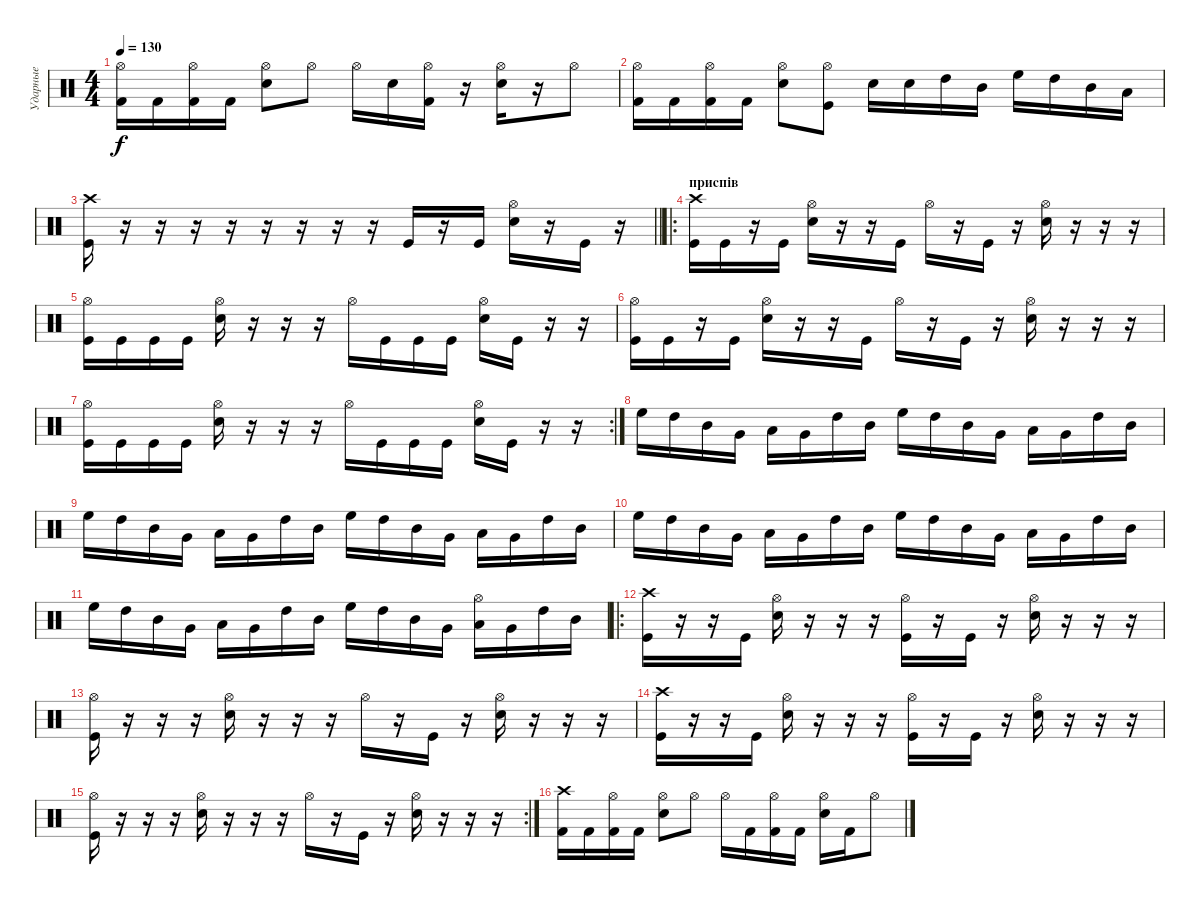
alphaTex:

\track ("Ударные" "Ударные") {instrument percussion}
\staff {score}
\articulation defaults
\ts (4 4)
\tempo 130
\clef neutral
\ks c
("Hi-Hat (open)" "Kick (hit) 2").16{dy f} "Kick (hit) 2".16 ("Hi-Hat (open)" "Kick (hit) 2").16 "Kick (hit) 2".16 ("Hi-Hat (open)" "Electric Snare (hit)").8 "Hi-Hat (open)".8 "Hi-Hat (open)".16 "Snare (hit) 2".16 ("Hi-Hat (open)" "Kick (hit) 2").16 r.16 ("Hi-Hat (open)" "Electric Snare (hit)").16 r.16 "Hi-Hat (open)".8 |
("Hi-Hat (open)" "Kick (hit) 2").16 "Kick (hit) 2".16 ("Hi-Hat (open)" "Kick (hit) 2").16 "Kick (hit) 2".16 ("Hi-Hat (open)" "Electric Snare (hit)").8 ("Hi-Hat (open)" "Kick (hit)").8 "Snare (hit) 2".16 "Snare (hit) 2".16 "High Tom (hit)".16 "Mid Tom (hit)".16 "High Floor Tom (hit)".16 "High Tom (hit)".16 "Mid Tom (hit)".16 "Low Tom (hit)".16 |
\barLineRight lightlight
("Kick (hit)" "Crash high (hit)").16 r.16 r.16 r.16 r.16 r.16 r.16 r.16 r.16 "Kick (hit)".16 r.16 "Kick (hit)".16 ("Snare (hit) 2" "Hi-Hat (open)").16 r.16 "Kick (hit)".16 r.16 |
\ro
\section ("" "приспів")
("Crash high (hit)" "Kick (hit)").16 "Kick (hit)".16 r.16 "Kick (hit)".16 ("Snare (hit) 2" "Hi-Hat (open)").16 r.16 r.16 "Kick (hit)".16 "Hi-Hat (open)".16 r.16 "Kick (hit)".16 r.16 ("Snare (hit) 2" "Hi-Hat (open)").16 r.16 r.16 r.16 |
("Hi-Hat (open)" "Kick (hit)").16 "Kick (hit)".16 "Kick (hit)".16 "Kick (hit)".16 ("Snare (hit) 2" "Hi-Hat (open)").16 r.16 r.16 r.16 "Hi-Hat (open)".16 "Kick (hit)".16 "Kick (hit)".16 "Kick (hit)".16 ("Snare (hit) 2" "Hi-Hat (open)").16 "Kick (hit)".16 r.16 r.16 |
("Hi-Hat (open)" "Kick (hit)").16 "Kick (hit)".16 r.16 "Kick (hit)".16 ("Snare (hit) 2" "Hi-Hat (open)").16 r.16 r.16 "Kick (hit)".16 "Hi-Hat (open)".16 r.16 "Kick (hit)".16 r.16 ("Snare (hit) 2" "Hi-Hat (open)").16 r.16 r.16 r.16 |
\rc 2
("Hi-Hat (open)" "Kick (hit)").16 "Kick (hit)".16 "Kick (hit)".16 "Kick (hit)".16 ("Snare (hit) 2" "Hi-Hat (open)").16 r.16 r.16 r.16 "Hi-Hat (open)".16 "Kick (hit)".16 "Kick (hit)".16 "Kick (hit)".16 ("Snare (hit) 2" "Hi-Hat (open)").16 "Kick (hit)".16 r.16 r.16 |
"High Floor Tom (hit)".16 "High Tom (hit)".16 "Mid Tom (hit)".16 "Very Low Tom (hit)".16 "Low Tom (hit)".16 "Very Low Tom (hit)".16 "High Tom (hit)".16 "Mid Tom (hit)".16 "High Floor Tom (hit)".16 "High Tom (hit)".16 "Mid Tom (hit)".16 "Very Low Tom (hit)".16 "Low Tom (hit)".16 "Very Low Tom (hit)".16 "High Tom (hit)".16 "Mid Tom (hit)".16 |
"High Floor Tom (hit)".16 "High Tom (hit)".16 "Mid Tom (hit)".16 "Very Low Tom (hit)".16 "Low Tom (hit)".16 "Very Low Tom (hit)".16 "High Tom (hit)".16 "Mid Tom (hit)".16 "High Floor Tom (hit)".16 "High Tom (hit)".16 "Mid Tom (hit)".16 "Very Low Tom (hit)".16 "Low Tom (hit)".16 "Very Low Tom (hit)".16 "High Tom (hit)".16 "Mid Tom (hit)".16 |
"High Floor Tom (hit)".16 "High Tom (hit)".16 "Mid Tom (hit)".16 "Very Low Tom (hit)".16 "Low Tom (hit)".16 "Very Low Tom (hit)".16 "High Tom (hit)".16 "Mid Tom (hit)".16 "High Floor Tom (hit)".16 "High Tom (hit)".16 "Mid Tom (hit)".16 "Very Low Tom (hit)".16 "Low Tom (hit)".16 "Very Low Tom (hit)".16 "High Tom (hit)".16 "Mid Tom (hit)".16 |
"High Floor Tom (hit)".16 "High Tom (hit)".16 "Mid Tom (hit)".16 "Very Low Tom (hit)".16 "Low Tom (hit)".16 "Very Low Tom (hit)".16 "High Tom (hit)".16 "Mid Tom (hit)".16 "High Floor Tom (hit)".16 "High Tom (hit)".16 "Mid Tom (hit)".16 "Very Low Tom (hit)".16 ("Low Tom (hit)" "Hi-Hat (open)").16 "Very Low Tom (hit)".16 "High Tom (hit)".16 "Mid Tom (hit)".16 |
\ro
("Crash high (hit)" "Kick (hit)").16 r.16 r.16 "Kick (hit)".16 ("Hi-Hat (open)" "Snare (hit) 2").16 r.16 r.16 r.16 ("Hi-Hat (open)" "Kick (hit)").16 r.16 "Kick (hit)".16 r.16 ("Hi-Hat (open)" "Snare (hit) 2").16 r.16 r.16 r.16 |
("Hi-Hat (open)" "Kick (hit)").16 r.16 r.16 r.16 ("Hi-Hat (open)" "Snare (hit) 2").16 r.16 r.16 r.16 "Hi-Hat (open)".16 r.16 "Kick (hit)".16 r.16 ("Hi-Hat (open)" "Snare (hit) 2").16 r.16 r.16 r.16 |
("Crash high (hit)" "Kick (hit)").16 r.16 r.16 "Kick (hit)".16 ("Hi-Hat (open)" "Snare (hit) 2").16 r.16 r.16 r.16 ("Hi-Hat (open)" "Kick (hit)").16 r.16 "Kick (hit)".16 r.16 ("Hi-Hat (open)" "Snare (hit) 2").16 r.16 r.16 r.16 |
\rc 2
("Hi-Hat (open)" "Kick (hit)").16 r.16 r.16 r.16 ("Hi-Hat (open)" "Snare (hit) 2").16 r.16 r.16 r.16 "Hi-Hat (open)".16 r.16 "Kick (hit)".16 r.16 ("Hi-Hat (open)" "Snare (hit) 2").16 r.16 r.16 r.16 |
("Crash high (hit)" "Kick (hit) 2").16 "Kick (hit) 2".16 ("Hi-Hat (open)" "Kick (hit) 2").16 "Kick (hit) 2".16 ("Hi-Hat (open)" "Electric Snare (hit)").8 "Hi-Hat (open)".8 "Hi-Hat (open)".16 "Kick (hit) 2".16 ("Hi-Hat (open)" "Kick (hit) 2").16 "Kick (hit) 2".16 ("Hi-Hat (open)" "Electric Snare (hit)").16 "Kick (hit) 2".16 "Hi-Hat (open)".8
